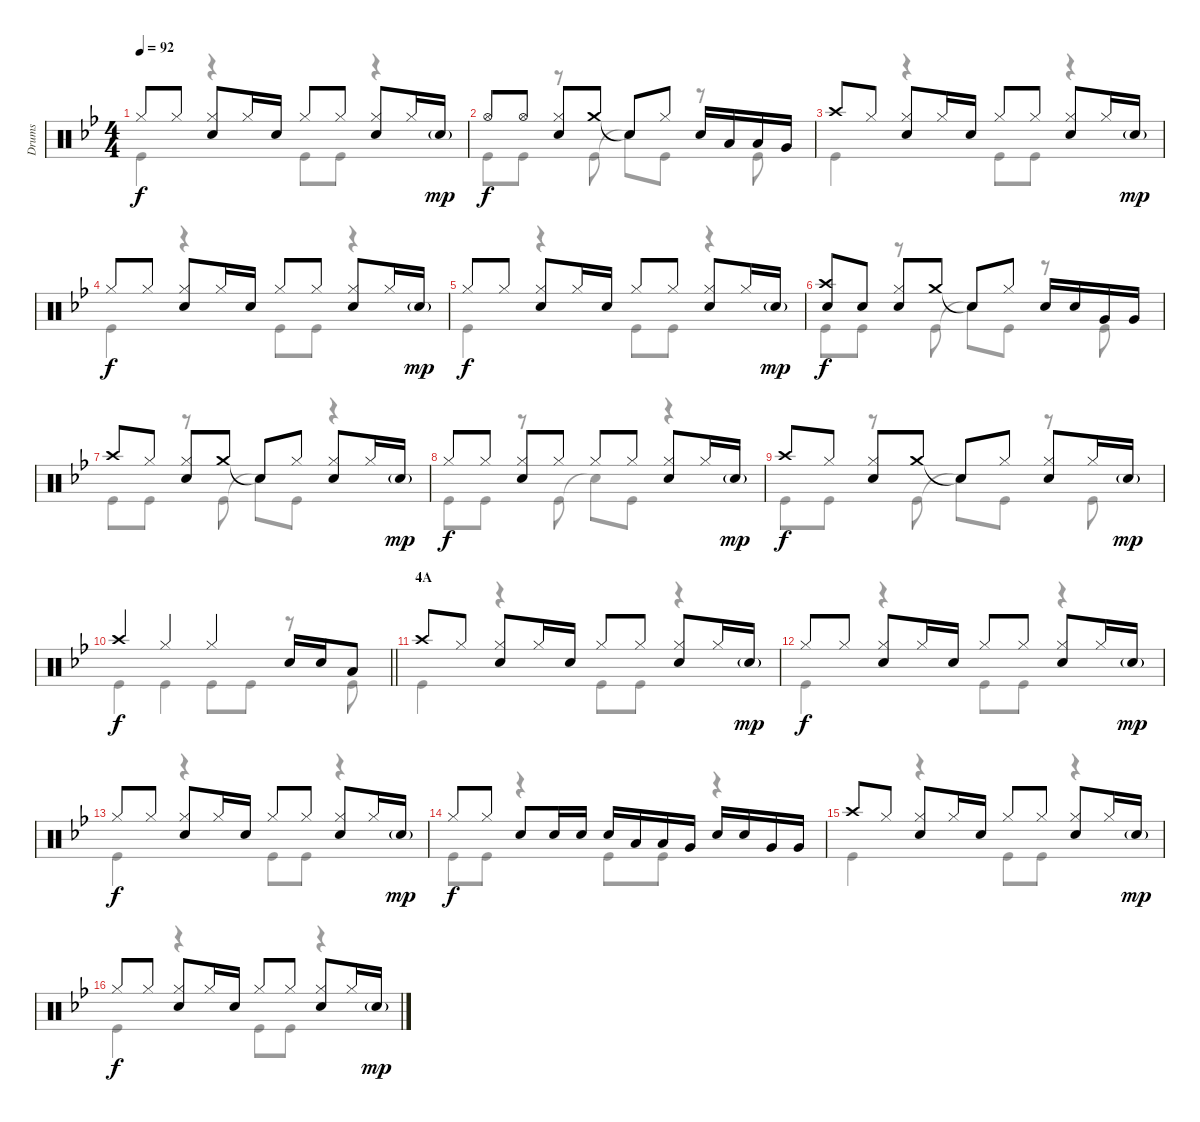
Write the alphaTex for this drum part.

\track ("Drums" "Drums") {instrument percussion}
\staff {score}
\articulation defaults
\voice
\ts (4 4)
\tempo 92
\clef neutral
\ks bb "Hi-Hat (closed)".8{dy f} "Hi-Hat (closed)".8
("Hi-Hat (closed)" "Snare (hit) 2").8 "Hi-Hat (closed)".16 "Snare (hit) 2".16 "Hi-Hat (closed)".8 "Hi-Hat (closed)".8 ("Hi-Hat (closed)" "Snare (hit) 2").8 "Hi-Hat (closed)".16 "Snare (hit) 2"{g}.16{dy mp} |
"Hi-Hat (open)".8{dy f} "Hi-Hat (open)".8 ("Hi-Hat (closed)" "Snare (hit) 2").8 "Crash medium (hit)".8 "Snare (hit)"{t}.8 "Hi-Hat (closed)".8 "Snare (hit) 2".16 "Low Tom (hit)".16 "Low Tom (hit)".16 "Very Low Tom (hit)".16 |
"Crash high (hit)".8 "Hi-Hat (closed)".8 ("Hi-Hat (closed)" "Snare (hit) 2").8 "Hi-Hat (closed)".16 "Snare (hit) 2".16 "Hi-Hat (closed)".8 "Hi-Hat (closed)".8 ("Hi-Hat (closed)" "Snare (hit) 2").8 "Hi-Hat (closed)".16 "Snare (hit) 2"{g}.16{dy mp} |
"Hi-Hat (closed)".8{dy f} "Hi-Hat (closed)".8 ("Hi-Hat (closed)" "Snare (hit) 2").8 "Hi-Hat (closed)".16 "Snare (hit) 2".16 "Hi-Hat (closed)".8 "Hi-Hat (closed)".8 ("Hi-Hat (closed)" "Snare (hit) 2").8 "Hi-Hat (closed)".16 "Snare (hit) 2"{g}.16{dy mp} |
"Hi-Hat (closed)".8{dy f} "Hi-Hat (closed)".8 ("Hi-Hat (closed)" "Snare (hit) 2").8 "Hi-Hat (closed)".16 "Snare (hit) 2".16 "Hi-Hat (closed)".8 "Hi-Hat (closed)".8 ("Hi-Hat (closed)" "Snare (hit) 2").8 "Hi-Hat (closed)".16 "Snare (hit) 2"{g}.16{dy mp} |
("Crash high (hit)" "Snare (hit) 2").8{dy f} "Snare (hit) 2".8 ("Hi-Hat (closed)" "Snare (hit) 2").8 "Crash medium (hit)".8 "Snare (hit)"{t}.8 "Hi-Hat (closed)".8 "Snare (hit) 2".16 "Snare (hit) 2".16 "Very Low Tom (hit)".16 "Very Low Tom (hit)".16 |
"Crash high (hit)".8 "Hi-Hat (closed)".8 ("Hi-Hat (closed)" "Snare (hit) 2").8 "Crash medium (hit)".8 "Snare (hit)"{t}.8 "Hi-Hat (closed)".8 ("Hi-Hat (closed)" "Snare (hit) 2").8 "Hi-Hat (closed)".16 "Snare (hit) 2"{g}.16{dy mp} |
"Hi-Hat (closed)".8{dy f} "Hi-Hat (closed)".8 ("Hi-Hat (closed)" "Snare (hit) 2").8 "Hi-Hat (closed)".8 "Hi-Hat (closed)".8 "Hi-Hat (closed)".8 ("Hi-Hat (closed)" "Snare (hit) 2").8 "Hi-Hat (closed)".16 "Snare (hit) 2"{g}.16{dy mp} |
"Crash high (hit)".8{dy f} "Hi-Hat (closed)".8 ("Hi-Hat (closed)" "Snare (hit) 2").8 "Crash medium (hit)".8 "Snare (hit)"{t}.8 "Hi-Hat (closed)".8 ("Hi-Hat (closed)" "Snare (hit) 2").8 "Hi-Hat (closed)".16 "Snare (hit) 2"{g}.16{dy mp} |
\barLineRight lightlight "Crash high (hit)".4{dy f} "Hi-Hat (closed)".4 "Hi-Hat (closed)".4 "Snare (hit) 2".16 "Snare (hit) 2".16 "Low Tom (hit)".8
|
\section ("" "4A")
"Crash high (hit)".8 "Hi-Hat (closed)".8 ("Hi-Hat (closed)" "Snare (hit) 2").8 "Hi-Hat (closed)".16 "Snare (hit) 2".16 "Hi-Hat (closed)".8 "Hi-Hat (closed)".8 ("Hi-Hat (closed)" "Snare (hit) 2").8 "Hi-Hat (closed)".16 "Snare (hit) 2"{g}.16{dy mp} |
"Hi-Hat (closed)".8{dy f} "Hi-Hat (closed)".8 ("Hi-Hat (closed)" "Snare (hit) 2").8 "Hi-Hat (closed)".16 "Snare (hit) 2".16 "Hi-Hat (closed)".8 "Hi-Hat (closed)".8 ("Hi-Hat (closed)" "Snare (hit) 2").8 "Hi-Hat (closed)".16 "Snare (hit) 2"{g}.16{dy mp} |
"Hi-Hat (closed)".8{dy f} "Hi-Hat (closed)".8 ("Hi-Hat (closed)" "Snare (hit) 2").8 "Hi-Hat (closed)".16 "Snare (hit) 2".16 "Hi-Hat (closed)".8 "Hi-Hat (closed)".8 ("Hi-Hat (closed)" "Snare (hit) 2").8 "Hi-Hat (closed)".16 "Snare (hit) 2"{g}.16{dy mp} |
"Hi-Hat (closed)".8{dy f} "Hi-Hat (closed)".8 "Snare (hit) 2".8 "Snare (hit) 2".16 "Snare (hit) 2".16 "Snare (hit) 2".16 "Low Tom (hit)".16 "Low Tom (hit)".16 "Very Low Tom (hit)".16 "Snare (hit) 2".16 "Snare (hit) 2".16 "Very Low Tom (hit)".16 "Very Low Tom (hit)".16 |
"Crash high (hit)".8 "Hi-Hat (closed)".8 ("Hi-Hat (closed)" "Snare (hit) 2").8 "Hi-Hat (closed)".16 "Snare (hit) 2".16 "Hi-Hat (closed)".8 "Hi-Hat (closed)".8 ("Hi-Hat (closed)" "Snare (hit) 2").8 "Hi-Hat (closed)".16 "Snare (hit) 2"{g}.16{dy mp} |
"Hi-Hat (closed)".8{dy f} "Hi-Hat (closed)".8 ("Hi-Hat (closed)" "Snare (hit) 2").8 "Hi-Hat (closed)".16 "Snare (hit) 2".16 "Hi-Hat (closed)".8 "Hi-Hat (closed)".8 ("Hi-Hat (closed)" "Snare (hit) 2").8 "Hi-Hat (closed)".16 "Snare (hit) 2"{g}.16{dy mp}
\voice
\clef neutral
\ottava regular
\simile none
\ks bb "Kick (hit)".4{dy f}
r.4 "Kick (hit)".8 "Kick (hit)".8 r.4 |
"Kick (hit)".8 "Kick (hit)".8 r.8 "Kick (hit)".8 "Snare (hit)"{t}.8 "Kick (hit)".8 r.8 "Kick (hit)".8 |
"Kick (hit)".4 r.4 "Kick (hit)".8 "Kick (hit)".8 r.4 |
"Kick (hit)".4 r.4 "Kick (hit)".8 "Kick (hit)".8 r.4 |
"Kick (hit)".4 r.4 "Kick (hit)".8 "Kick (hit)".8 r.4 |
"Kick (hit)".8 "Kick (hit)".8 r.8 "Kick (hit)".8 "Snare (hit)"{t}.8 "Kick (hit)".8 r.8 "Kick (hit)".8 |
"Kick (hit)".8 "Kick (hit)".8 r.8 "Kick (hit)".8 "Snare (hit)"{t}.8 "Kick (hit)".8 r.4 |
"Kick (hit)".8 "Kick (hit)".8 r.8 "Kick (hit)".8 "Snare (hit)"{t}.8 "Kick (hit)".8 r.4 |
"Kick (hit)".8 "Kick (hit)".8 r.8 "Kick (hit)".8 "Snare (hit)"{t}.8 "Kick (hit)".8 r.8 "Kick (hit)".8 |
\barLineRight lightlight "Kick (hit)".4 "Kick (hit)".4 "Kick (hit)".8 "Kick (hit)".8
r.8 "Kick (hit)".8 |
"Kick (hit)".4 r.4 "Kick (hit)".8 "Kick (hit)".8 r.4 |
"Kick (hit)".4 r.4 "Kick (hit)".8 "Kick (hit)".8 r.4 |
"Kick (hit)".4 r.4 "Kick (hit)".8 "Kick (hit)".8 r.4 |
"Kick (hit)".8 "Kick (hit)".8 r.4 "Kick (hit)".8 "Kick (hit)".8 r.4 |
"Kick (hit)".4 r.4 "Kick (hit)".8 "Kick (hit)".8 r.4 |
"Kick (hit)".4 r.4 "Kick (hit)".8 "Kick (hit)".8 r.4
